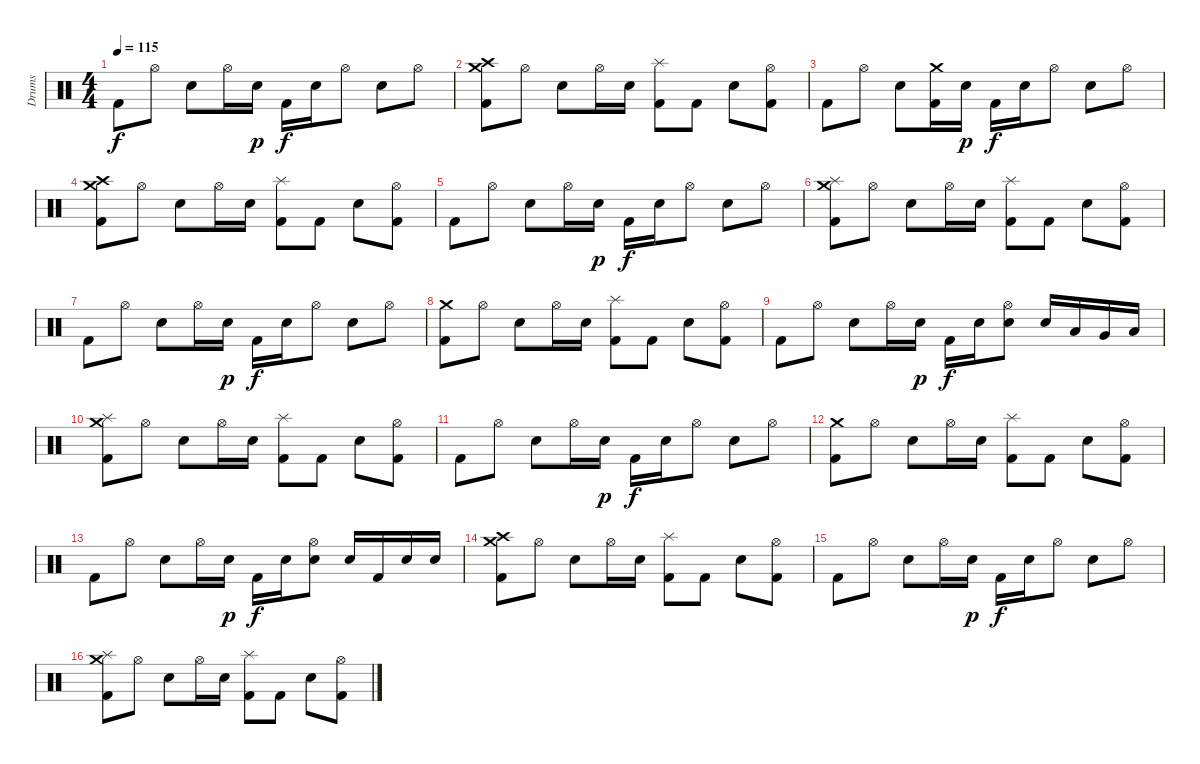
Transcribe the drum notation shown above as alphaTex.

\track ("Drums" "Drums") {instrument percussion}
\staff {score}
\articulation defaults
\ts (4 4)
\tempo 115
\clef neutral
\ks c "Kick (hit) 2".8{dy f} "Hi-Hat (open)".8 "Snare (hit) 2".8 "Hi-Hat (open)".16 "Snare (hit) 2".16{dy p} "Kick (hit) 2".16{dy f} "Snare (hit) 2".16 "Hi-Hat (open)".8 "Snare (hit) 2".8 "Hi-Hat (open)".8
|
("Crash medium (hit)" "Kick (hit) 2" "Crash high (hit)").8 "Hi-Hat (open)".8 "Snare (hit) 2".8 "Hi-Hat (open)".16 "Snare (hit) 2".16 ("Splash (hit)" "Kick (hit) 2").8 "Kick (hit) 2".8 "Snare (hit) 2".8 ("Hi-Hat (open)" "Kick (hit) 2").8 |
"Kick (hit) 2".8 "Hi-Hat (open)".8 "Snare (hit) 2".8 ("Crash medium (hit)" "Kick (hit) 2").16 "Snare (hit) 2".16{dy p} "Kick (hit) 2".16{dy f} "Snare (hit) 2".16 "Hi-Hat (open)".8 "Snare (hit) 2".8 "Hi-Hat (open)".8 |
("Crash medium (hit)" "Kick (hit) 2" "Crash high (hit)").8 "Hi-Hat (open)".8 "Snare (hit) 2".8 "Hi-Hat (open)".16 "Snare (hit) 2".16 ("Splash (hit)" "Kick (hit) 2").8 "Kick (hit) 2".8 "Snare (hit) 2".8 ("Hi-Hat (open)" "Kick (hit) 2").8 |
"Kick (hit) 2".8 "Hi-Hat (open)".8 "Snare (hit) 2".8 "Hi-Hat (open)".16 "Snare (hit) 2".16{dy p} "Kick (hit) 2".16{dy f} "Snare (hit) 2".16 "Hi-Hat (open)".8 "Snare (hit) 2".8 "Hi-Hat (open)".8 |
("Crash medium (hit)" "Kick (hit) 2" "Splash (hit)").8 "Hi-Hat (open)".8 "Snare (hit) 2".8 "Hi-Hat (open)".16 "Snare (hit) 2".16 ("Splash (hit)" "Kick (hit) 2").8 "Kick (hit) 2".8 "Snare (hit) 2".8 ("Hi-Hat (open)" "Kick (hit) 2").8 |
"Kick (hit) 2".8 "Hi-Hat (open)".8 "Snare (hit) 2".8 "Hi-Hat (open)".16 "Snare (hit) 2".16{dy p} "Kick (hit) 2".16{dy f} "Snare (hit) 2".16 "Hi-Hat (open)".8 "Snare (hit) 2".8 "Hi-Hat (open)".8 |
("Crash medium (hit)" "Kick (hit) 2").8 "Hi-Hat (open)".8 "Snare (hit) 2".8 "Hi-Hat (open)".16 "Snare (hit) 2".16 ("Splash (hit)" "Kick (hit) 2").8 "Kick (hit) 2".8 "Snare (hit) 2".8 ("Hi-Hat (open)" "Kick (hit) 2").8 |
"Kick (hit) 2".8 "Hi-Hat (open)".8 "Snare (hit) 2".8 "Hi-Hat (open)".16 "Snare (hit) 2".16{dy p} "Kick (hit) 2".16{dy f} "Snare (hit) 2".16 ("Hi-Hat (open)" "Electric Snare (hit)").8 "Electric Snare (hit)".16 "Low Tom (hit)".16 "Very Low Tom (hit)".16 "Low Floor Tom (hit)".16 |
("Crash medium (hit)" "Kick (hit) 2" "Splash (hit)").8 "Hi-Hat (open)".8 "Snare (hit) 2".8 "Hi-Hat (open)".16 "Snare (hit) 2".16 ("Splash (hit)" "Kick (hit) 2").8 "Kick (hit) 2".8 "Snare (hit) 2".8 ("Hi-Hat (open)" "Kick (hit) 2").8 |
"Kick (hit) 2".8 "Hi-Hat (open)".8 "Snare (hit) 2".8 "Hi-Hat (open)".16 "Snare (hit) 2".16{dy p} "Kick (hit) 2".16{dy f} "Snare (hit) 2".16 "Hi-Hat (open)".8 "Snare (hit) 2".8 "Hi-Hat (open)".8 |
("Crash medium (hit)" "Kick (hit) 2").8 "Hi-Hat (open)".8 "Snare (hit) 2".8 "Hi-Hat (open)".16 "Snare (hit) 2".16 ("Splash (hit)" "Kick (hit) 2").8 "Kick (hit) 2".8 "Snare (hit) 2".8 ("Hi-Hat (open)" "Kick (hit) 2").8 |
"Kick (hit) 2".8 "Hi-Hat (open)".8 "Snare (hit) 2".8 "Hi-Hat (open)".16 "Snare (hit) 2".16{dy p} "Kick (hit) 2".16{dy f} "Snare (hit) 2".16 ("Hi-Hat (open)" "Electric Snare (hit)").8 "Electric Snare (hit)".16 "Kick (hit) 2".16 "Electric Snare (hit)".16 "Electric Snare (hit)".16 |
("Crash medium (hit)" "Kick (hit) 2" "Crash high (hit)").8 "Hi-Hat (open)".8 "Snare (hit) 2".8 "Hi-Hat (open)".16 "Snare (hit) 2".16 ("Splash (hit)" "Kick (hit) 2").8 "Kick (hit) 2".8 "Snare (hit) 2".8 ("Hi-Hat (open)" "Kick (hit) 2").8 |
"Kick (hit) 2".8 "Hi-Hat (open)".8 "Snare (hit) 2".8 "Hi-Hat (open)".16 "Snare (hit) 2".16{dy p} "Kick (hit) 2".16{dy f} "Snare (hit) 2".16 "Hi-Hat (open)".8 "Snare (hit) 2".8 "Hi-Hat (open)".8 |
("Crash medium (hit)" "Kick (hit) 2" "Splash (hit)").8 "Hi-Hat (open)".8 "Snare (hit) 2".8 "Hi-Hat (open)".16 "Snare (hit) 2".16 ("Splash (hit)" "Kick (hit) 2").8 "Kick (hit) 2".8 "Snare (hit) 2".8 ("Hi-Hat (open)" "Kick (hit) 2").8
